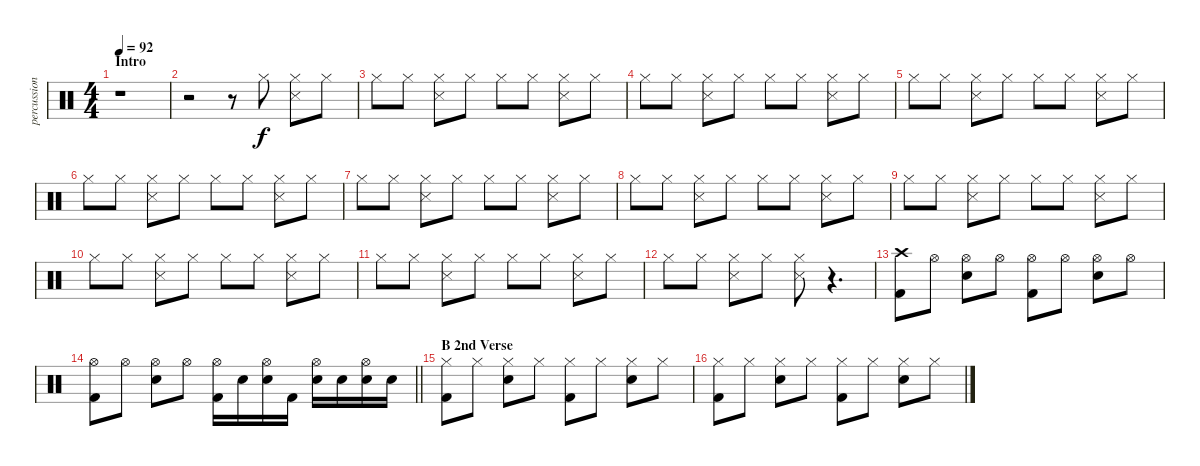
\track ("percussion" "percussion") {instrument percussion}
\staff {score}
\articulation defaults
\ts (4 4)
\section ("" "Intro")
\tempo 92
\clef neutral
\ks c
r.1{dy f} |
r.2 r.8 "Hi-Hat (closed)".8 ("Snare (side stick) 3" "Hi-Hat (closed)").8 "Hi-Hat (closed)".8 |
"Hi-Hat (closed)".8 "Hi-Hat (closed)".8 ("Snare (side stick) 3" "Hi-Hat (closed)").8 "Hi-Hat (closed)".8 "Hi-Hat (closed)".8 "Hi-Hat (closed)".8 ("Snare (side stick) 3" "Hi-Hat (closed)").8 "Hi-Hat (closed)".8 |
"Hi-Hat (closed)".8 "Hi-Hat (closed)".8 ("Snare (side stick) 3" "Hi-Hat (closed)").8 "Hi-Hat (closed)".8 "Hi-Hat (closed)".8 "Hi-Hat (closed)".8 ("Snare (side stick) 3" "Hi-Hat (closed)").8 "Hi-Hat (closed)".8 |
"Hi-Hat (closed)".8 "Hi-Hat (closed)".8 ("Snare (side stick) 3" "Hi-Hat (closed)").8 "Hi-Hat (closed)".8 "Hi-Hat (closed)".8 "Hi-Hat (closed)".8 ("Snare (side stick) 3" "Hi-Hat (closed)").8 "Hi-Hat (closed)".8 |
"Hi-Hat (closed)".8 "Hi-Hat (closed)".8 ("Snare (side stick) 3" "Hi-Hat (closed)").8 "Hi-Hat (closed)".8 "Hi-Hat (closed)".8 "Hi-Hat (closed)".8 ("Snare (side stick) 3" "Hi-Hat (closed)").8 "Hi-Hat (closed)".8 |
"Hi-Hat (closed)".8 "Hi-Hat (closed)".8 ("Snare (side stick) 3" "Hi-Hat (closed)").8 "Hi-Hat (closed)".8 "Hi-Hat (closed)".8 "Hi-Hat (closed)".8 ("Snare (side stick) 3" "Hi-Hat (closed)").8 "Hi-Hat (closed)".8 |
"Hi-Hat (closed)".8 "Hi-Hat (closed)".8 ("Snare (side stick) 3" "Hi-Hat (closed)").8 "Hi-Hat (closed)".8 "Hi-Hat (closed)".8 "Hi-Hat (closed)".8 ("Snare (side stick) 3" "Hi-Hat (closed)").8 "Hi-Hat (closed)".8 |
"Hi-Hat (closed)".8 "Hi-Hat (closed)".8 ("Snare (side stick) 3" "Hi-Hat (closed)").8 "Hi-Hat (closed)".8 "Hi-Hat (closed)".8 "Hi-Hat (closed)".8 ("Snare (side stick) 3" "Hi-Hat (closed)").8 "Hi-Hat (closed)".8 |
"Hi-Hat (closed)".8 "Hi-Hat (closed)".8 ("Snare (side stick) 3" "Hi-Hat (closed)").8 "Hi-Hat (closed)".8 "Hi-Hat (closed)".8 "Hi-Hat (closed)".8 ("Snare (side stick) 3" "Hi-Hat (closed)").8 "Hi-Hat (closed)".8 |
"Hi-Hat (closed)".8 "Hi-Hat (closed)".8 ("Snare (side stick) 3" "Hi-Hat (closed)").8 "Hi-Hat (closed)".8 "Hi-Hat (closed)".8 "Hi-Hat (closed)".8 ("Snare (side stick) 3" "Hi-Hat (closed)").8 "Hi-Hat (closed)".8 |
"Hi-Hat (closed)".8 "Hi-Hat (closed)".8 ("Snare (side stick) 3" "Hi-Hat (closed)").8 "Hi-Hat (closed)".8 ("Snare (side stick) 3" "Hi-Hat (closed)").8 r.4{d} |
("Crash high (hit)" "Kick (hit) 2").8 "Hi-Hat (open)".8 ("Electric Snare (hit)" "Hi-Hat (open)").8 "Hi-Hat (open)".8 ("Hi-Hat (open)" "Kick (hit) 2").8 "Hi-Hat (open)".8 ("Electric Snare (hit)" "Hi-Hat (open)").8 "Hi-Hat (open)".8 |
\barLineRight lightlight
("Hi-Hat (open)" "Kick (hit) 2").8 "Hi-Hat (open)".8 ("Electric Snare (hit)" "Hi-Hat (open)").8 "Hi-Hat (open)".8 ("Hi-Hat (open)" "Kick (hit) 2").16 "Electric Snare (hit)".16 ("Electric Snare (hit)" "Hi-Hat (open)").16 "Kick (hit) 2".16 ("Electric Snare (hit)" "Hi-Hat (open)").16 "Electric Snare (hit)".16 ("Electric Snare (hit)" "Hi-Hat (open)").16 "Electric Snare (hit)".16 |
\section ("" "B 2nd Verse")
("Hi-Hat (closed)" "Kick (hit) 2").8 "Hi-Hat (closed)".8 ("Electric Snare (hit)" "Hi-Hat (closed)").8 "Hi-Hat (closed)".8 ("Hi-Hat (closed)" "Kick (hit) 2").8 "Hi-Hat (closed)".8 ("Electric Snare (hit)" "Hi-Hat (closed)").8 "Hi-Hat (closed)".8 |
("Hi-Hat (closed)" "Kick (hit) 2").8 "Hi-Hat (closed)".8 ("Electric Snare (hit)" "Hi-Hat (closed)").8 "Hi-Hat (closed)".8 ("Hi-Hat (closed)" "Kick (hit) 2").8 "Hi-Hat (closed)".8 ("Electric Snare (hit)" "Hi-Hat (closed)").8 "Hi-Hat (closed)".8
